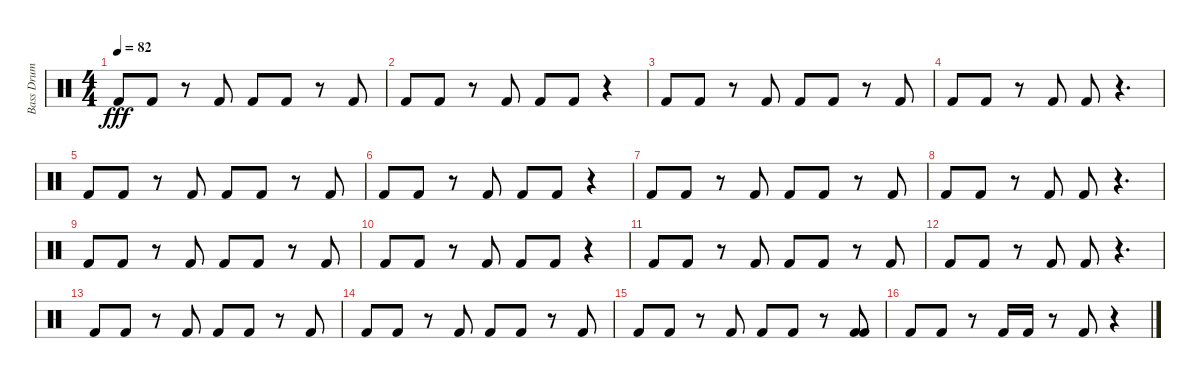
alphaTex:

\track ("Bass Drum" "Bass Drum") {instrument percussion}
\staff {score}
\articulation defaults
\ts (4 4)
\tempo 82
\clef neutral
\ks c "Kick (hit) 2".8{dy fff} "Kick (hit) 2".8
r.8 "Kick (hit) 2".8 "Kick (hit) 2".8 "Kick (hit) 2".8 r.8 "Kick (hit) 2".8 |
"Kick (hit) 2".8 "Kick (hit) 2".8 r.8 "Kick (hit) 2".8 "Kick (hit) 2".8 "Kick (hit) 2".8 r.4 |
"Kick (hit) 2".8 "Kick (hit) 2".8 r.8 "Kick (hit) 2".8 "Kick (hit) 2".8 "Kick (hit) 2".8 r.8 "Kick (hit) 2".8 |
"Kick (hit) 2".8 "Kick (hit) 2".8 r.8 "Kick (hit) 2".8 "Kick (hit) 2".8 r.4{d} |
"Kick (hit) 2".8 "Kick (hit) 2".8 r.8 "Kick (hit) 2".8 "Kick (hit) 2".8 "Kick (hit) 2".8 r.8 "Kick (hit) 2".8 |
"Kick (hit) 2".8 "Kick (hit) 2".8 r.8 "Kick (hit) 2".8 "Kick (hit) 2".8 "Kick (hit) 2".8 r.4 |
"Kick (hit) 2".8 "Kick (hit) 2".8 r.8 "Kick (hit) 2".8 "Kick (hit) 2".8 "Kick (hit) 2".8 r.8 "Kick (hit) 2".8 |
"Kick (hit) 2".8 "Kick (hit) 2".8 r.8 "Kick (hit) 2".8 "Kick (hit) 2".8 r.4{d} |
"Kick (hit) 2".8 "Kick (hit) 2".8 r.8 "Kick (hit) 2".8 "Kick (hit) 2".8 "Kick (hit) 2".8 r.8 "Kick (hit) 2".8 |
"Kick (hit) 2".8 "Kick (hit) 2".8 r.8 "Kick (hit) 2".8 "Kick (hit) 2".8 "Kick (hit) 2".8 r.4 |
"Kick (hit) 2".8 "Kick (hit) 2".8 r.8 "Kick (hit) 2".8 "Kick (hit) 2".8 "Kick (hit) 2".8 r.8 "Kick (hit) 2".8 |
"Kick (hit) 2".8 "Kick (hit) 2".8 r.8 "Kick (hit) 2".8 "Kick (hit) 2".8 r.4{d} |
"Kick (hit) 2".8 "Kick (hit) 2".8 r.8 "Kick (hit) 2".8 "Kick (hit) 2".8 "Kick (hit) 2".8 r.8 "Kick (hit) 2".8 |
"Kick (hit) 2".8 "Kick (hit) 2".8 r.8 "Kick (hit) 2".8 "Kick (hit) 2".8 "Kick (hit) 2".8 r.8 "Kick (hit) 2".8 |
"Kick (hit) 2".8 "Kick (hit) 2".8 r.8 "Kick (hit) 2".8 "Kick (hit) 2".8 "Kick (hit) 2".8 r.8 ("Kick (hit) 2" "Kick (hit) 2").8 |
"Kick (hit) 2".8 "Kick (hit) 2".8 r.8 "Kick (hit) 2".16 "Kick (hit) 2".16 r.8 "Kick (hit) 2".8 r.4
